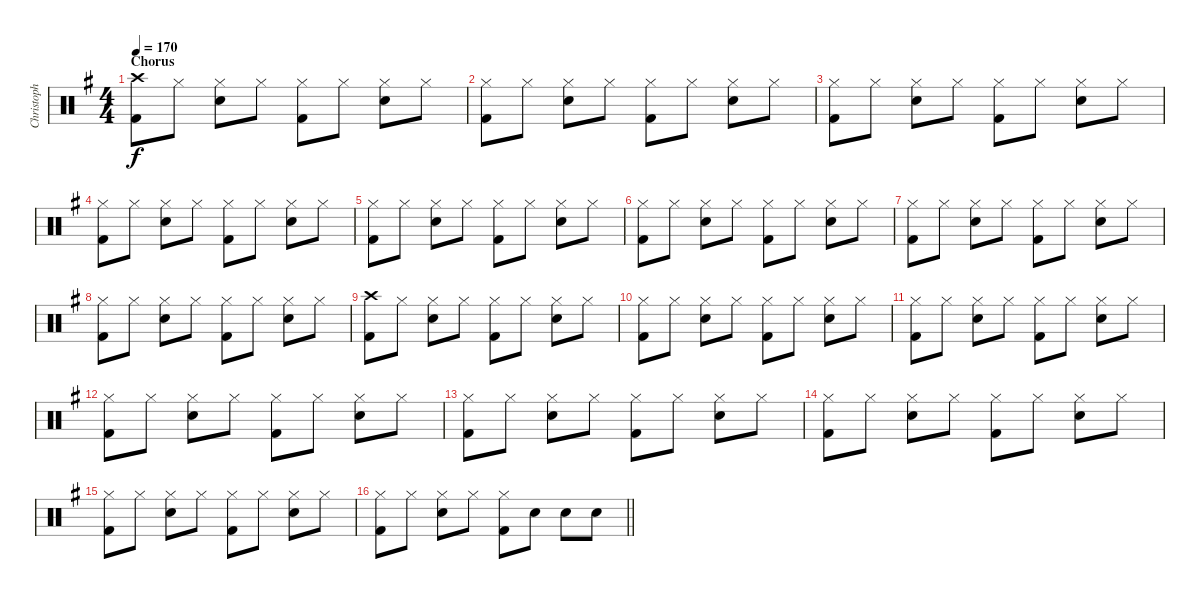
\track ("Christoph Doom Schneider - Drums" "Christoph ") {instrument percussion}
\staff {score}
\articulation defaults
\ts (4 4)
\section ("" "Chorus")
\tempo 170
\clef neutral
\ks g
("Crash high (hit)" "Kick (hit) 2").8{dy f} "Hi-Hat (closed)".8 ("Hi-Hat (closed)" "Electric Snare (hit)").8 "Hi-Hat (closed)".8 ("Hi-Hat (closed)" "Kick (hit) 2").8 "Hi-Hat (closed)".8 ("Hi-Hat (closed)" "Electric Snare (hit)").8 "Hi-Hat (closed)".8 |
("Hi-Hat (closed)" "Kick (hit) 2").8 "Hi-Hat (closed)".8 ("Hi-Hat (closed)" "Electric Snare (hit)").8 "Hi-Hat (closed)".8 ("Hi-Hat (closed)" "Kick (hit) 2").8 "Hi-Hat (closed)".8 ("Hi-Hat (closed)" "Electric Snare (hit)").8 "Hi-Hat (closed)".8 |
("Hi-Hat (closed)" "Kick (hit) 2").8 "Hi-Hat (closed)".8 ("Hi-Hat (closed)" "Electric Snare (hit)").8 "Hi-Hat (closed)".8 ("Hi-Hat (closed)" "Kick (hit) 2").8 "Hi-Hat (closed)".8 ("Hi-Hat (closed)" "Electric Snare (hit)").8 "Hi-Hat (closed)".8 |
("Hi-Hat (closed)" "Kick (hit) 2").8 "Hi-Hat (closed)".8 ("Hi-Hat (closed)" "Electric Snare (hit)").8 "Hi-Hat (closed)".8 ("Hi-Hat (closed)" "Kick (hit) 2").8 "Hi-Hat (closed)".8 ("Hi-Hat (closed)" "Electric Snare (hit)").8 "Hi-Hat (closed)".8 |
("Hi-Hat (closed)" "Kick (hit) 2").8 "Hi-Hat (closed)".8 ("Hi-Hat (closed)" "Electric Snare (hit)").8 "Hi-Hat (closed)".8 ("Hi-Hat (closed)" "Kick (hit) 2").8 "Hi-Hat (closed)".8 ("Hi-Hat (closed)" "Electric Snare (hit)").8 "Hi-Hat (closed)".8 |
("Hi-Hat (closed)" "Kick (hit) 2").8 "Hi-Hat (closed)".8 ("Hi-Hat (closed)" "Electric Snare (hit)").8 "Hi-Hat (closed)".8 ("Hi-Hat (closed)" "Kick (hit) 2").8 "Hi-Hat (closed)".8 ("Hi-Hat (closed)" "Electric Snare (hit)").8 "Hi-Hat (closed)".8 |
("Hi-Hat (closed)" "Kick (hit) 2").8 "Hi-Hat (closed)".8 ("Hi-Hat (closed)" "Electric Snare (hit)").8 "Hi-Hat (closed)".8 ("Hi-Hat (closed)" "Kick (hit) 2").8 "Hi-Hat (closed)".8 ("Hi-Hat (closed)" "Electric Snare (hit)").8 "Hi-Hat (closed)".8 |
("Hi-Hat (closed)" "Kick (hit) 2").8 "Hi-Hat (closed)".8 ("Hi-Hat (closed)" "Electric Snare (hit)").8 "Hi-Hat (closed)".8 ("Hi-Hat (closed)" "Kick (hit) 2").8 "Hi-Hat (closed)".8 ("Hi-Hat (closed)" "Electric Snare (hit)").8 "Hi-Hat (closed)".8 |
("Crash high (hit)" "Kick (hit) 2").8 "Hi-Hat (closed)".8 ("Hi-Hat (closed)" "Electric Snare (hit)").8 "Hi-Hat (closed)".8 ("Hi-Hat (closed)" "Kick (hit) 2").8 "Hi-Hat (closed)".8 ("Hi-Hat (closed)" "Electric Snare (hit)").8 "Hi-Hat (closed)".8 |
("Hi-Hat (closed)" "Kick (hit) 2").8 "Hi-Hat (closed)".8 ("Hi-Hat (closed)" "Electric Snare (hit)").8 "Hi-Hat (closed)".8 ("Hi-Hat (closed)" "Kick (hit) 2").8 "Hi-Hat (closed)".8 ("Hi-Hat (closed)" "Electric Snare (hit)").8 "Hi-Hat (closed)".8 |
("Hi-Hat (closed)" "Kick (hit) 2").8 "Hi-Hat (closed)".8 ("Hi-Hat (closed)" "Electric Snare (hit)").8 "Hi-Hat (closed)".8 ("Hi-Hat (closed)" "Kick (hit) 2").8 "Hi-Hat (closed)".8 ("Hi-Hat (closed)" "Electric Snare (hit)").8 "Hi-Hat (closed)".8 |
("Hi-Hat (closed)" "Kick (hit) 2").8 "Hi-Hat (closed)".8 ("Hi-Hat (closed)" "Electric Snare (hit)").8 "Hi-Hat (closed)".8 ("Hi-Hat (closed)" "Kick (hit) 2").8 "Hi-Hat (closed)".8 ("Hi-Hat (closed)" "Electric Snare (hit)").8 "Hi-Hat (closed)".8 |
("Hi-Hat (closed)" "Kick (hit) 2").8 "Hi-Hat (closed)".8 ("Hi-Hat (closed)" "Electric Snare (hit)").8 "Hi-Hat (closed)".8 ("Hi-Hat (closed)" "Kick (hit) 2").8 "Hi-Hat (closed)".8 ("Hi-Hat (closed)" "Electric Snare (hit)").8 "Hi-Hat (closed)".8 |
("Hi-Hat (closed)" "Kick (hit) 2").8 "Hi-Hat (closed)".8 ("Hi-Hat (closed)" "Electric Snare (hit)").8 "Hi-Hat (closed)".8 ("Hi-Hat (closed)" "Kick (hit) 2").8 "Hi-Hat (closed)".8 ("Hi-Hat (closed)" "Electric Snare (hit)").8 "Hi-Hat (closed)".8 |
("Hi-Hat (closed)" "Kick (hit) 2").8 "Hi-Hat (closed)".8 ("Hi-Hat (closed)" "Electric Snare (hit)").8 "Hi-Hat (closed)".8 ("Hi-Hat (closed)" "Kick (hit) 2").8 "Hi-Hat (closed)".8 ("Hi-Hat (closed)" "Electric Snare (hit)").8 "Hi-Hat (closed)".8 |
\barLineRight lightlight
("Hi-Hat (closed)" "Kick (hit) 2").8 "Hi-Hat (closed)".8 ("Hi-Hat (closed)" "Electric Snare (hit)").8 "Hi-Hat (closed)".8 ("Hi-Hat (closed)" "Kick (hit) 2").8 "Electric Snare (hit)".8 "Electric Snare (hit)".8 "Electric Snare (hit)".8
